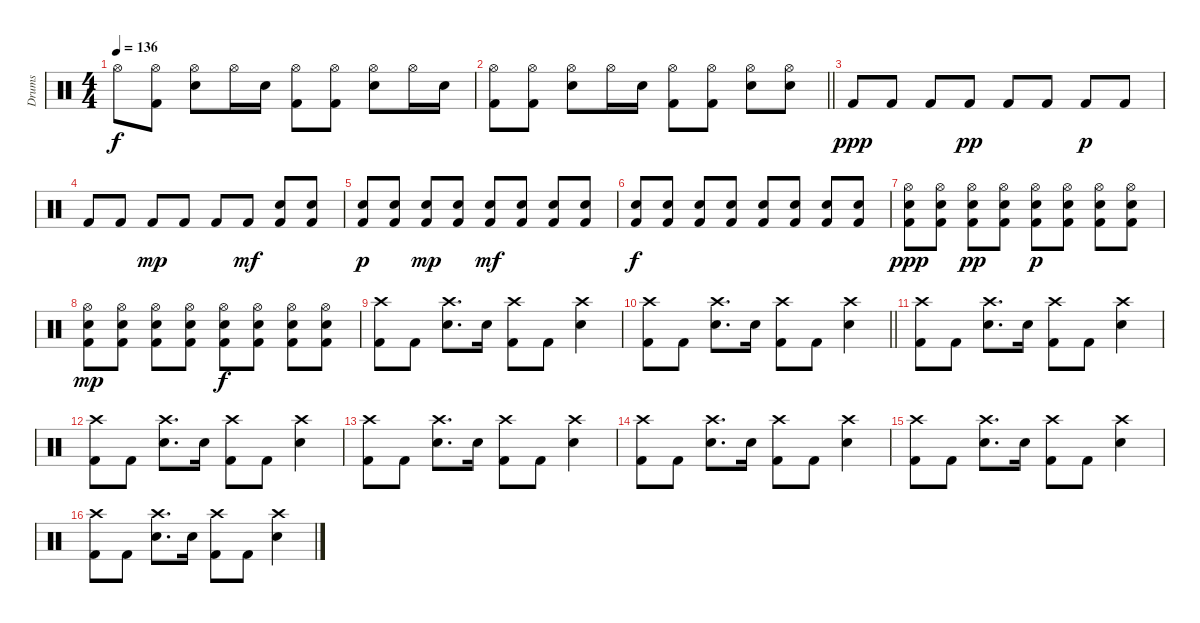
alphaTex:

\track ("Drums" "Drums") {instrument percussion}
\staff {score}
\articulation defaults
\ts (4 4)
\tempo 136
\clef neutral
\ks c "Hi-Hat (open)".8{dy f}
("Hi-Hat (open)" "Kick (hit) 2").8 ("Hi-Hat (open)" "Snare (hit) 2").8 "Hi-Hat (open)".16 "Snare (hit) 2".16 ("Hi-Hat (open)" "Kick (hit) 2").8 ("Hi-Hat (open)" "Kick (hit) 2").8 ("Hi-Hat (open)" "Snare (hit) 2").8 "Hi-Hat (open)".16 "Snare (hit) 2".16 |
\barLineRight lightlight
("Hi-Hat (open)" "Kick (hit) 2").8 ("Hi-Hat (open)" "Kick (hit) 2").8 ("Hi-Hat (open)" "Snare (hit) 2").8 "Hi-Hat (open)".16 "Snare (hit) 2".16 ("Hi-Hat (open)" "Kick (hit) 2").8 ("Hi-Hat (open)" "Kick (hit) 2").8 ("Hi-Hat (open)" "Snare (hit) 2").8 ("Hi-Hat (open)" "Snare (hit) 2").8 |
\section ("" "")
"Kick (hit) 2".8{dy ppp} "Kick (hit) 2".8 "Kick (hit) 2".8 "Kick (hit) 2".8{dy pp} "Kick (hit) 2".8 "Kick (hit) 2".8 "Kick (hit) 2".8{dy p} "Kick (hit) 2".8 |
"Kick (hit) 2".8 "Kick (hit) 2".8 "Kick (hit) 2".8{dy mp} "Kick (hit) 2".8 "Kick (hit) 2".8 "Kick (hit) 2".8{dy mf} ("Snare (hit) 2" "Kick (hit) 2").8 ("Snare (hit) 2" "Kick (hit) 2").8 |
("Snare (hit) 2" "Kick (hit) 2").8{dy p} ("Snare (hit) 2" "Kick (hit) 2").8 ("Snare (hit) 2" "Kick (hit) 2").8{dy mp} ("Snare (hit) 2" "Kick (hit) 2").8 ("Snare (hit) 2" "Kick (hit) 2").8{dy mf} ("Snare (hit) 2" "Kick (hit) 2").8 ("Snare (hit) 2" "Kick (hit) 2").8 ("Snare (hit) 2" "Kick (hit) 2").8 |
("Snare (hit) 2" "Kick (hit) 2").8{dy f} ("Snare (hit) 2" "Kick (hit) 2").8 ("Snare (hit) 2" "Kick (hit) 2").8 ("Snare (hit) 2" "Kick (hit) 2").8 ("Snare (hit) 2" "Kick (hit) 2").8 ("Snare (hit) 2" "Kick (hit) 2").8 ("Snare (hit) 2" "Kick (hit) 2").8 ("Snare (hit) 2" "Kick (hit) 2").8 |
("Hi-Hat (open)" "Snare (hit) 2" "Kick (hit) 2").8{dy ppp} ("Hi-Hat (open)" "Snare (hit) 2" "Kick (hit) 2").8 ("Hi-Hat (open)" "Snare (hit) 2" "Kick (hit) 2").8{dy pp} ("Hi-Hat (open)" "Snare (hit) 2" "Kick (hit) 2").8 ("Hi-Hat (open)" "Snare (hit) 2" "Kick (hit) 2").8{dy p} ("Hi-Hat (open)" "Snare (hit) 2" "Kick (hit) 2").8 ("Hi-Hat (open)" "Snare (hit) 2" "Kick (hit) 2").8 ("Hi-Hat (open)" "Snare (hit) 2" "Kick (hit) 2").8 |
("Hi-Hat (open)" "Snare (hit) 2" "Kick (hit) 2").8{dy mp} ("Hi-Hat (open)" "Snare (hit) 2" "Kick (hit) 2").8 ("Hi-Hat (open)" "Snare (hit) 2" "Kick (hit) 2").8 ("Hi-Hat (open)" "Snare (hit) 2" "Kick (hit) 2").8 ("Hi-Hat (open)" "Snare (hit) 2" "Kick (hit) 2").8{dy f} ("Hi-Hat (open)" "Snare (hit) 2" "Kick (hit) 2").8 ("Hi-Hat (open)" "Snare (hit) 2" "Kick (hit) 2").8 ("Hi-Hat (open)" "Snare (hit) 2" "Kick (hit) 2").8 |
("Crash high (hit)" "Kick (hit) 2").8 "Kick (hit) 2".8 ("Crash high (hit)" "Snare (hit) 2").8{d} "Snare (hit) 2".16 ("Crash high (hit)" "Kick (hit) 2").8 "Kick (hit) 2".8 ("Crash high (hit)" "Snare (hit) 2").4 |
\barLineRight lightlight
("Crash high (hit)" "Kick (hit) 2").8 "Kick (hit) 2".8 ("Crash high (hit)" "Snare (hit) 2").8{d} "Snare (hit) 2".16 ("Crash high (hit)" "Kick (hit) 2").8 "Kick (hit) 2".8 ("Crash high (hit)" "Snare (hit) 2").4 |
\section ("" "")
("Crash high (hit)" "Kick (hit) 2").8 "Kick (hit) 2".8 ("Crash high (hit)" "Snare (hit) 2").8{d} "Snare (hit) 2".16 ("Crash high (hit)" "Kick (hit) 2").8 "Kick (hit) 2".8 ("Crash high (hit)" "Snare (hit) 2").4 |
("Crash high (hit)" "Kick (hit) 2").8 "Kick (hit) 2".8 ("Crash high (hit)" "Snare (hit) 2").8{d} "Snare (hit) 2".16 ("Crash high (hit)" "Kick (hit) 2").8 "Kick (hit) 2".8 ("Crash high (hit)" "Snare (hit) 2").4 |
("Crash high (hit)" "Kick (hit) 2").8 "Kick (hit) 2".8 ("Crash high (hit)" "Snare (hit) 2").8{d} "Snare (hit) 2".16 ("Crash high (hit)" "Kick (hit) 2").8 "Kick (hit) 2".8 ("Crash high (hit)" "Snare (hit) 2").4 |
("Crash high (hit)" "Kick (hit) 2").8 "Kick (hit) 2".8 ("Crash high (hit)" "Snare (hit) 2").8{d} "Snare (hit) 2".16 ("Crash high (hit)" "Kick (hit) 2").8 "Kick (hit) 2".8 ("Crash high (hit)" "Snare (hit) 2").4 |
("Crash high (hit)" "Kick (hit) 2").8 "Kick (hit) 2".8 ("Crash high (hit)" "Snare (hit) 2").8{d} "Snare (hit) 2".16 ("Crash high (hit)" "Kick (hit) 2").8 "Kick (hit) 2".8 ("Crash high (hit)" "Snare (hit) 2").4 |
("Crash high (hit)" "Kick (hit) 2").8 "Kick (hit) 2".8 ("Crash high (hit)" "Snare (hit) 2").8{d} "Snare (hit) 2".16 ("Crash high (hit)" "Kick (hit) 2").8 "Kick (hit) 2".8 ("Crash high (hit)" "Snare (hit) 2").4
